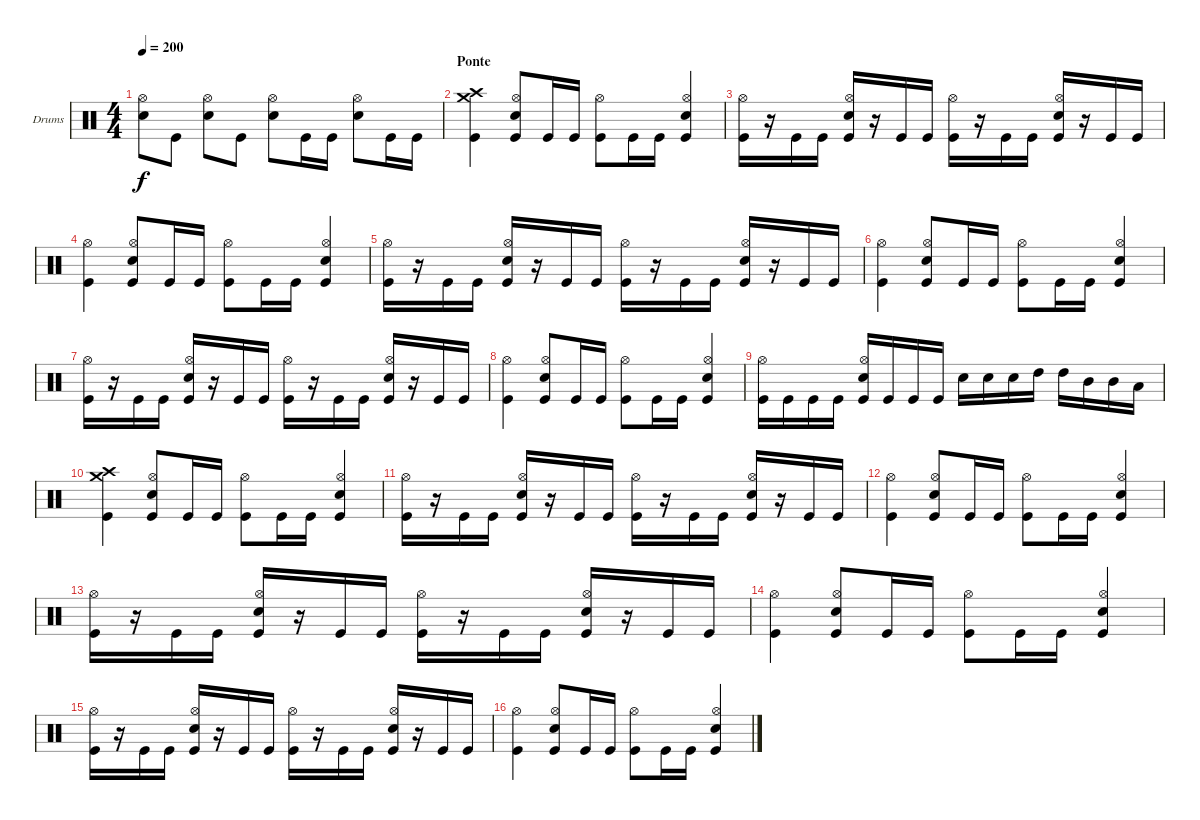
\defaultSystemsLayout 4
\bracketExtendMode groupsimilarinstruments
\firstSystemTrackNameOrientation horizontal
\otherSystemsTrackNameOrientation horizontal
\track ("Drumkit" "Drums") {instrument percussion}
\staff {score}
\articulation defaults
\ts (4 4)
\tempo 200
\clef neutral
\ks c
("Snare (hit) 2" "Hi-Hat (open)").8{dy f} "Kick (hit)".8 ("Hi-Hat (open)" "Snare (hit) 2").8 "Kick (hit)".8 ("Snare (hit) 2" "Hi-Hat (open)").8 "Kick (hit)".16 "Kick (hit)".16 ("Snare (hit) 2" "Hi-Hat (open)").8 "Kick (hit)".16 "Kick (hit)".16 |
\section ("" "Ponte")
("Crash medium (hit)" "Crash high (hit)" "Kick (hit)").4 ("Hi-Hat (open)" "Snare (hit) 2" "Kick (hit)").8 "Kick (hit)".16 "Kick (hit)".16 ("Hi-Hat (open)" "Kick (hit)").8 "Kick (hit)".16 "Kick (hit)".16 ("Hi-Hat (open)" "Snare (hit) 2" "Kick (hit)").4 |
("Hi-Hat (open)" "Kick (hit)").16 r.16 "Kick (hit)".16 "Kick (hit)".16 ("Hi-Hat (open)" "Snare (hit) 2" "Kick (hit)").16 r.16 "Kick (hit)".16 "Kick (hit)".16 ("Hi-Hat (open)" "Kick (hit)").16 r.16 "Kick (hit)".16 "Kick (hit)".16 ("Hi-Hat (open)" "Snare (hit) 2" "Kick (hit)").16 r.16 "Kick (hit)".16 "Kick (hit)".16 |
("Hi-Hat (open)" "Kick (hit)").4 ("Hi-Hat (open)" "Snare (hit) 2" "Kick (hit)").8 "Kick (hit)".16 "Kick (hit)".16 ("Hi-Hat (open)" "Kick (hit)").8 "Kick (hit)".16 "Kick (hit)".16 ("Hi-Hat (open)" "Snare (hit) 2" "Kick (hit)").4 |
("Hi-Hat (open)" "Kick (hit)").16 r.16 "Kick (hit)".16 "Kick (hit)".16 ("Hi-Hat (open)" "Snare (hit) 2" "Kick (hit)").16 r.16 "Kick (hit)".16 "Kick (hit)".16 ("Hi-Hat (open)" "Kick (hit)").16 r.16 "Kick (hit)".16 "Kick (hit)".16 ("Hi-Hat (open)" "Snare (hit) 2" "Kick (hit)").16 r.16 "Kick (hit)".16 "Kick (hit)".16 |
("Hi-Hat (open)" "Kick (hit)").4 ("Hi-Hat (open)" "Snare (hit) 2" "Kick (hit)").8 "Kick (hit)".16 "Kick (hit)".16 ("Hi-Hat (open)" "Kick (hit)").8 "Kick (hit)".16 "Kick (hit)".16 ("Hi-Hat (open)" "Snare (hit) 2" "Kick (hit)").4 |
("Hi-Hat (open)" "Kick (hit)").16 r.16 "Kick (hit)".16 "Kick (hit)".16 ("Hi-Hat (open)" "Snare (hit) 2" "Kick (hit)").16 r.16 "Kick (hit)".16 "Kick (hit)".16 ("Hi-Hat (open)" "Kick (hit)").16 r.16 "Kick (hit)".16 "Kick (hit)".16 ("Hi-Hat (open)" "Snare (hit) 2" "Kick (hit)").16 r.16 "Kick (hit)".16 "Kick (hit)".16 |
("Hi-Hat (open)" "Kick (hit)").4 ("Hi-Hat (open)" "Snare (hit) 2" "Kick (hit)").8 "Kick (hit)".16 "Kick (hit)".16 ("Hi-Hat (open)" "Kick (hit)").8 "Kick (hit)".16 "Kick (hit)".16 ("Hi-Hat (open)" "Snare (hit) 2" "Kick (hit)").4 |
("Hi-Hat (open)" "Kick (hit)").16 "Kick (hit)".16 "Kick (hit)".16 "Kick (hit)".16 ("Hi-Hat (open)" "Snare (hit) 2" "Kick (hit)").16 "Kick (hit)".16 "Kick (hit)".16 "Kick (hit)".16 "Snare (hit) 2".16 "Snare (hit) 2".16 "Snare (hit) 2".16 "High Tom (hit)".16 "High Tom (hit)".16 "Mid Tom (hit)".16 "Mid Tom (hit)".16 "Low Tom (hit)".16 |
("Crash medium (hit)" "Crash high (hit)" "Kick (hit)").4 ("Hi-Hat (open)" "Snare (hit) 2" "Kick (hit)").8 "Kick (hit)".16 "Kick (hit)".16 ("Hi-Hat (open)" "Kick (hit)").8 "Kick (hit)".16 "Kick (hit)".16 ("Hi-Hat (open)" "Snare (hit) 2" "Kick (hit)").4 |
("Hi-Hat (open)" "Kick (hit)").16 r.16 "Kick (hit)".16 "Kick (hit)".16 ("Hi-Hat (open)" "Snare (hit) 2" "Kick (hit)").16 r.16 "Kick (hit)".16 "Kick (hit)".16 ("Hi-Hat (open)" "Kick (hit)").16 r.16 "Kick (hit)".16 "Kick (hit)".16 ("Hi-Hat (open)" "Snare (hit) 2" "Kick (hit)").16 r.16 "Kick (hit)".16 "Kick (hit)".16 |
("Hi-Hat (open)" "Kick (hit)").4 ("Hi-Hat (open)" "Snare (hit) 2" "Kick (hit)").8 "Kick (hit)".16 "Kick (hit)".16 ("Hi-Hat (open)" "Kick (hit)").8 "Kick (hit)".16 "Kick (hit)".16 ("Hi-Hat (open)" "Snare (hit) 2" "Kick (hit)").4 |
("Hi-Hat (open)" "Kick (hit)").16 r.16 "Kick (hit)".16 "Kick (hit)".16 ("Hi-Hat (open)" "Snare (hit) 2" "Kick (hit)").16 r.16 "Kick (hit)".16 "Kick (hit)".16 ("Hi-Hat (open)" "Kick (hit)").16 r.16 "Kick (hit)".16 "Kick (hit)".16 ("Hi-Hat (open)" "Snare (hit) 2" "Kick (hit)").16 r.16 "Kick (hit)".16 "Kick (hit)".16 |
("Hi-Hat (open)" "Kick (hit)").4 ("Hi-Hat (open)" "Snare (hit) 2" "Kick (hit)").8 "Kick (hit)".16 "Kick (hit)".16 ("Hi-Hat (open)" "Kick (hit)").8 "Kick (hit)".16 "Kick (hit)".16 ("Hi-Hat (open)" "Snare (hit) 2" "Kick (hit)").4 |
("Hi-Hat (open)" "Kick (hit)").16 r.16 "Kick (hit)".16 "Kick (hit)".16 ("Hi-Hat (open)" "Snare (hit) 2" "Kick (hit)").16 r.16 "Kick (hit)".16 "Kick (hit)".16 ("Hi-Hat (open)" "Kick (hit)").16 r.16 "Kick (hit)".16 "Kick (hit)".16 ("Hi-Hat (open)" "Snare (hit) 2" "Kick (hit)").16 r.16 "Kick (hit)".16 "Kick (hit)".16 |
("Hi-Hat (open)" "Kick (hit)").4 ("Hi-Hat (open)" "Snare (hit) 2" "Kick (hit)").8 "Kick (hit)".16 "Kick (hit)".16 ("Hi-Hat (open)" "Kick (hit)").8 "Kick (hit)".16 "Kick (hit)".16 ("Hi-Hat (open)" "Snare (hit) 2" "Kick (hit)").4
